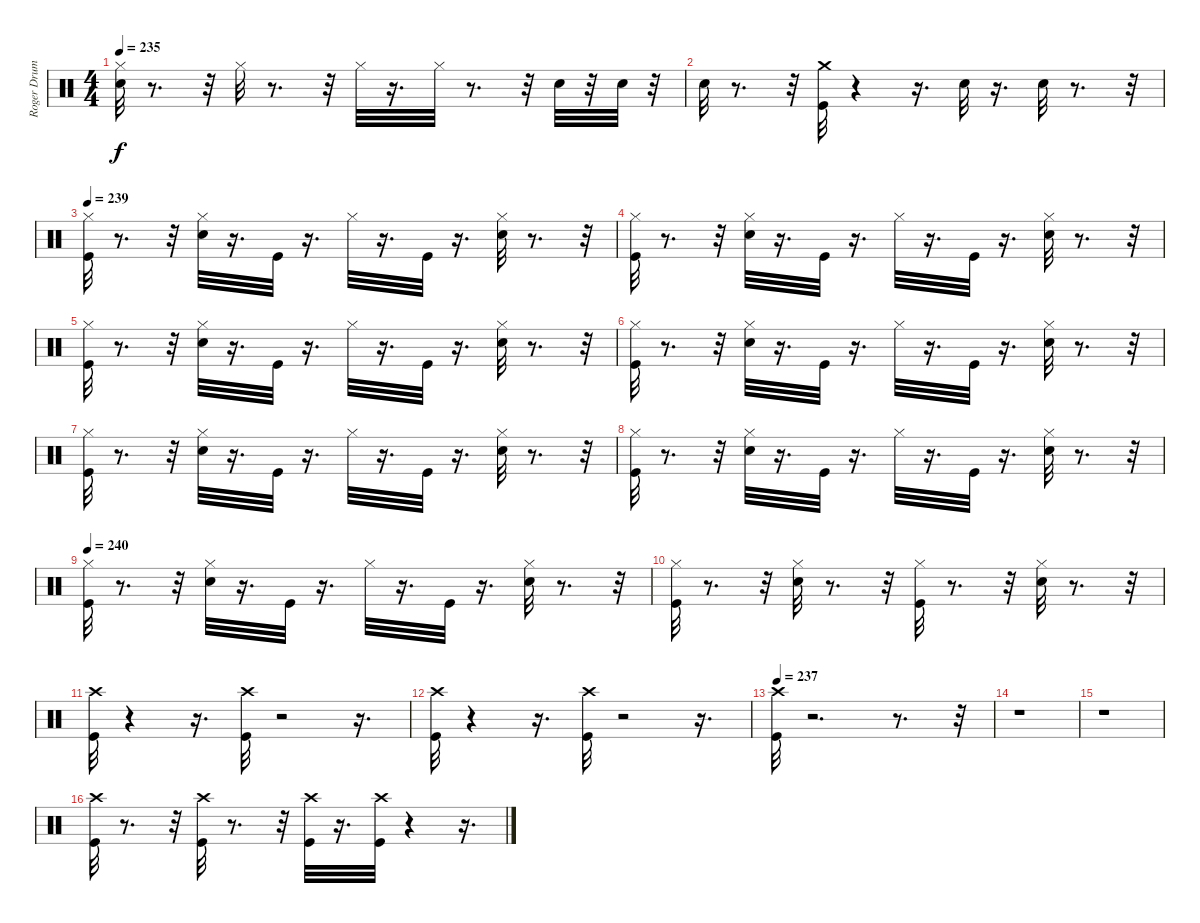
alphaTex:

\track ("Roger Drums" "Roger Drum") {instrument percussion}
\staff {score}
\articulation defaults
\ts (4 4)
\tempo 235
\clef neutral
\ks c
("Hi-Hat (closed)" "Electric Snare (hit)").32{dy f} r.8{d} r.32 "Hi-Hat (closed)".32 r.8{d} r.32 "Hi-Hat (closed)".32 r.16{d} "Hi-Hat (closed)".32 r.8{d} r.32 "Electric Snare (hit)".32 r.32 "Electric Snare (hit)".32 r.32 |
"Electric Snare (hit)".32 r.8{d} r.32 ("Kick (hit)" "Crash medium (hit)").32 r.4 r.16{d} "Electric Snare (hit)".32 r.16{d} "Electric Snare (hit)".32 r.8{d} r.32 |
\tempo 239
("Hi-Hat (closed)" "Kick (hit)").32 r.8{d} r.32 ("Hi-Hat (closed)" "Electric Snare (hit)").32 r.16{d} "Kick (hit)".32 r.16{d} "Hi-Hat (closed)".32 r.16{d} "Kick (hit)".32 r.16{d} ("Hi-Hat (closed)" "Electric Snare (hit)").32 r.8{d} r.32 |
("Hi-Hat (closed)" "Kick (hit)").32 r.8{d} r.32 ("Hi-Hat (closed)" "Electric Snare (hit)").32 r.16{d} "Kick (hit)".32 r.16{d} "Hi-Hat (closed)".32 r.16{d} "Kick (hit)".32 r.16{d} ("Hi-Hat (closed)" "Electric Snare (hit)").32 r.8{d} r.32 |
("Hi-Hat (closed)" "Kick (hit)").32 r.8{d} r.32 ("Hi-Hat (closed)" "Electric Snare (hit)").32 r.16{d} "Kick (hit)".32 r.16{d} "Hi-Hat (closed)".32 r.16{d} "Kick (hit)".32 r.16{d} ("Hi-Hat (closed)" "Electric Snare (hit)").32 r.8{d} r.32 |
("Hi-Hat (closed)" "Kick (hit)").32 r.8{d} r.32 ("Hi-Hat (closed)" "Electric Snare (hit)").32 r.16{d} "Kick (hit)".32 r.16{d} "Hi-Hat (closed)".32 r.16{d} "Kick (hit)".32 r.16{d} ("Hi-Hat (closed)" "Electric Snare (hit)").32 r.8{d} r.32 |
("Hi-Hat (closed)" "Kick (hit)").32 r.8{d} r.32 ("Hi-Hat (closed)" "Electric Snare (hit)").32 r.16{d} "Kick (hit)".32 r.16{d} "Hi-Hat (closed)".32 r.16{d} "Kick (hit)".32 r.16{d} ("Hi-Hat (closed)" "Electric Snare (hit)").32 r.8{d} r.32 |
("Hi-Hat (closed)" "Kick (hit)").32 r.8{d} r.32 ("Hi-Hat (closed)" "Electric Snare (hit)").32 r.16{d} "Kick (hit)".32 r.16{d} "Hi-Hat (closed)".32 r.16{d} "Kick (hit)".32 r.16{d} ("Hi-Hat (closed)" "Electric Snare (hit)").32 r.8{d} r.32 |
\tempo 240
("Hi-Hat (closed)" "Kick (hit)").32 r.8{d} r.32 ("Hi-Hat (closed)" "Electric Snare (hit)").32 r.16{d} "Kick (hit)".32 r.16{d} "Hi-Hat (closed)".32 r.16{d} "Kick (hit)".32 r.16{d} ("Hi-Hat (closed)" "Electric Snare (hit)").32 r.8{d} r.32 |
("Hi-Hat (closed)" "Kick (hit)").32 r.8{d} r.32 ("Hi-Hat (closed)" "Electric Snare (hit)").32 r.8{d} r.32 ("Kick (hit)" "Hi-Hat (closed)").32 r.8{d} r.32 ("Hi-Hat (closed)" "Electric Snare (hit)").32 r.8{d} r.32 |
("Crash high (hit)" "Kick (hit)").32 r.4 r.16{d} ("Crash high (hit)" "Kick (hit)").32 r.2 r.16{d} |
("Kick (hit)" "Crash high (hit)").32 r.4 r.16{d} ("Kick (hit)" "Crash high (hit)").32 r.2 r.16{d} |
\tempo 237
("Kick (hit)" "Crash high (hit)").32 r.2{d} r.8{d} r.32 |
r.1 |
r.1 |
("Kick (hit)" "Crash high (hit)").32 r.8{d} r.32 ("Kick (hit)" "Crash high (hit)").32 r.8{d} r.32 ("Crash high (hit)" "Kick (hit)").32 r.16{d} ("Crash high (hit)" "Kick (hit)").32 r.4 r.16{d}
